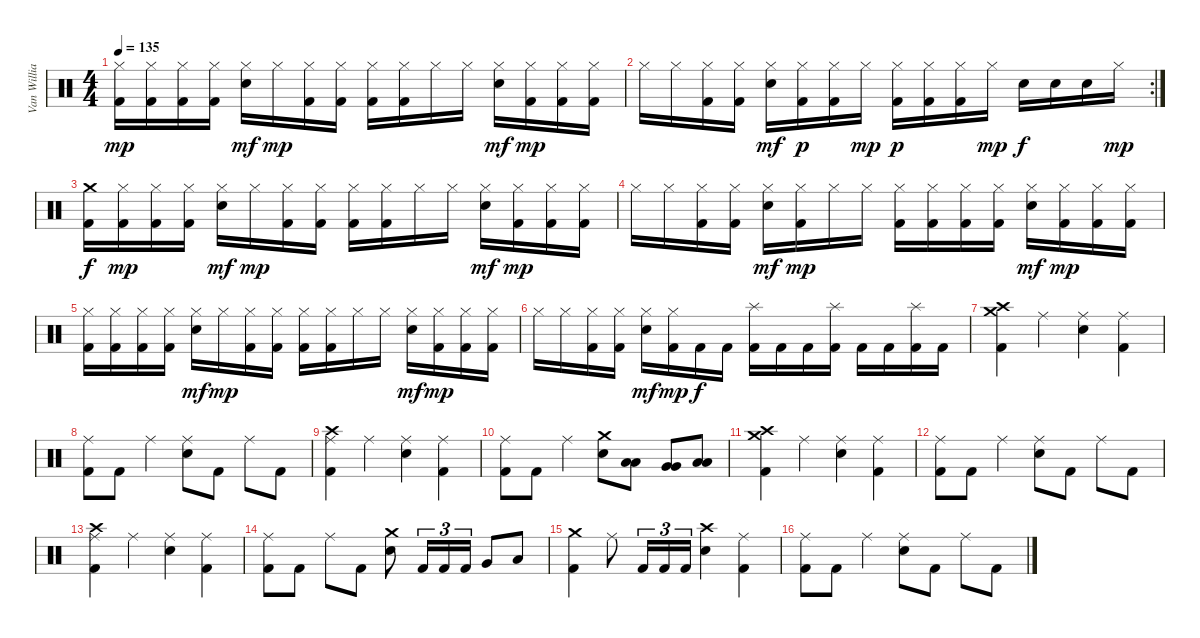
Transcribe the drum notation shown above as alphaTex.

\track ("Van Williams" "Van Willia") {instrument percussion}
\staff {score}
\articulation defaults
\ts (4 4)
\tempo 135
\clef neutral
\ks c
("Hi-Hat (closed)" "Kick (hit) 2").16{dy mp} ("Hi-Hat (closed)" "Kick (hit) 2").16 ("Hi-Hat (closed)" "Kick (hit) 2").16 ("Hi-Hat (closed)" "Kick (hit) 2").16 ("Hi-Hat (closed)" "Electric Snare (hit)").16{dy mf} "Hi-Hat (closed)".16{dy mp} ("Hi-Hat (closed)" "Kick (hit) 2").16 ("Hi-Hat (closed)" "Kick (hit) 2").16 ("Hi-Hat (closed)" "Kick (hit) 2").16 ("Hi-Hat (closed)" "Kick (hit) 2").16 "Hi-Hat (closed)".16 "Hi-Hat (closed)".16 ("Hi-Hat (closed)" "Electric Snare (hit)").16{dy mf} ("Hi-Hat (closed)" "Kick (hit) 2").16{dy mp} ("Hi-Hat (closed)" "Kick (hit) 2").16 ("Hi-Hat (closed)" "Kick (hit) 2").16 |
\rc 2 "Hi-Hat (closed)".16 "Hi-Hat (closed)".16
("Hi-Hat (closed)" "Kick (hit) 2").16 ("Hi-Hat (closed)" "Kick (hit) 2").16 ("Hi-Hat (closed)" "Electric Snare (hit)").16{dy mf} ("Hi-Hat (closed)" "Kick (hit) 2").16{dy p} ("Hi-Hat (closed)" "Kick (hit) 2").16 "Hi-Hat (closed)".16{dy mp} ("Hi-Hat (closed)" "Kick (hit) 2").16{dy p} ("Hi-Hat (closed)" "Kick (hit) 2").16 ("Hi-Hat (closed)" "Kick (hit) 2").16 "Hi-Hat (closed)".16{dy mp} "Electric Snare (hit)".16{dy f} "Electric Snare (hit)".16 "Electric Snare (hit)".16 "Hi-Hat (closed)".16{dy mp} |
("Crash medium (hit)" "Kick (hit) 2").16{dy f} ("Hi-Hat (closed)" "Kick (hit) 2").16{dy mp} ("Hi-Hat (closed)" "Kick (hit) 2").16 ("Hi-Hat (closed)" "Kick (hit) 2").16 ("Hi-Hat (closed)" "Electric Snare (hit)").16{dy mf} "Hi-Hat (closed)".16{dy mp} ("Hi-Hat (closed)" "Kick (hit) 2").16 ("Hi-Hat (closed)" "Kick (hit) 2").16 ("Hi-Hat (closed)" "Kick (hit) 2").16 ("Hi-Hat (closed)" "Kick (hit) 2").16 "Hi-Hat (closed)".16 "Hi-Hat (closed)".16 ("Hi-Hat (closed)" "Electric Snare (hit)").16{dy mf} ("Hi-Hat (closed)" "Kick (hit) 2").16{dy mp} ("Hi-Hat (closed)" "Kick (hit) 2").16 ("Hi-Hat (closed)" "Kick (hit) 2").16 |
"Hi-Hat (closed)".16 "Hi-Hat (closed)".16 ("Hi-Hat (closed)" "Kick (hit) 2").16 ("Hi-Hat (closed)" "Kick (hit) 2").16 ("Hi-Hat (closed)" "Electric Snare (hit)").16{dy mf} ("Hi-Hat (closed)" "Kick (hit) 2").16{dy mp} "Hi-Hat (closed)".16 "Hi-Hat (closed)".16 ("Hi-Hat (closed)" "Kick (hit) 2").16 ("Hi-Hat (closed)" "Kick (hit) 2").16 ("Hi-Hat (closed)" "Kick (hit) 2").16 ("Hi-Hat (closed)" "Kick (hit) 2").16 ("Hi-Hat (closed)" "Electric Snare (hit)").16{dy mf} ("Hi-Hat (closed)" "Kick (hit) 2").16{dy mp} ("Hi-Hat (closed)" "Kick (hit) 2").16 ("Hi-Hat (closed)" "Kick (hit) 2").16 |
("Hi-Hat (closed)" "Kick (hit) 2").16 ("Hi-Hat (closed)" "Kick (hit) 2").16 ("Hi-Hat (closed)" "Kick (hit) 2").16 ("Hi-Hat (closed)" "Kick (hit) 2").16 ("Hi-Hat (closed)" "Electric Snare (hit)").16{dy mf} "Hi-Hat (closed)".16{dy mp} ("Hi-Hat (closed)" "Kick (hit) 2").16 ("Hi-Hat (closed)" "Kick (hit) 2").16 ("Hi-Hat (closed)" "Kick (hit) 2").16 ("Hi-Hat (closed)" "Kick (hit) 2").16 "Hi-Hat (closed)".16 "Hi-Hat (closed)".16 ("Hi-Hat (closed)" "Electric Snare (hit)").16{dy mf} ("Hi-Hat (closed)" "Kick (hit) 2").16{dy mp} ("Hi-Hat (closed)" "Kick (hit) 2").16 ("Hi-Hat (closed)" "Kick (hit) 2").16 |
"Hi-Hat (closed)".16 "Hi-Hat (closed)".16 ("Hi-Hat (closed)" "Kick (hit) 2").16 ("Hi-Hat (closed)" "Kick (hit) 2").16 ("Hi-Hat (closed)" "Electric Snare (hit)").16{dy mf} ("Hi-Hat (closed)" "Kick (hit) 2").16{dy mp} "Kick (hit) 2".16{dy f} "Kick (hit) 2".16 ("Splash (hit)" "Kick (hit) 2").16 "Kick (hit) 2".16 "Kick (hit) 2".16 ("Splash (hit)" "Kick (hit) 2").16 "Kick (hit) 2".16 "Kick (hit) 2".16 ("Splash (hit)" "Kick (hit) 2").16 "Kick (hit) 2".16 |
("Crash medium (hit)" "Crash high (hit)" "Kick (hit) 2").4 "Ride (middle)".4 ("Ride (middle)" "Electric Snare (hit)").4 ("Ride (middle)" "Kick (hit) 2").4 |
("Ride (middle)" "Kick (hit) 2").8 "Kick (hit) 2".8 "Ride (middle)".4 ("Ride (middle)" "Electric Snare (hit)").8 "Kick (hit) 2".8 "Ride (middle)".8 "Kick (hit) 2".8 |
("Crash high (hit)" "Ride (middle)" "Kick (hit) 2").4 "Ride (middle)".4 ("Ride (middle)" "Electric Snare (hit)").4 ("Ride (middle)" "Kick (hit) 2").4 |
("Ride (middle)" "Kick (hit) 2").8 "Kick (hit) 2".8 "Ride (middle)".4 ("Crash medium (hit)" "Electric Snare (hit)").8 ("Low Floor Tom (hit)" "Low Floor Tom (hit)").8 ("Very Low Tom (hit)" "Very Low Tom (hit)").8 ("Low Floor Tom (hit)" "Low Floor Tom (hit)").8 |
("Crash medium (hit)" "Crash high (hit)" "Kick (hit) 2").4 "Ride (middle)".4 ("Ride (middle)" "Electric Snare (hit)").4 ("Ride (middle)" "Kick (hit) 2").4 |
("Ride (middle)" "Kick (hit) 2").8 "Kick (hit) 2".8 "Ride (middle)".4 ("Ride (middle)" "Electric Snare (hit)").8 "Kick (hit) 2".8 "Ride (middle)".8 "Kick (hit) 2".8 |
("Crash high (hit)" "Ride (middle)" "Kick (hit) 2").4 "Ride (middle)".4 ("Ride (middle)" "Electric Snare (hit)").4 ("Ride (middle)" "Kick (hit) 2").4 |
("Ride (middle)" "Kick (hit) 2").8 "Kick (hit) 2".8 "Ride (middle)".8 "Kick (hit) 2".8 ("Crash medium (hit)" "Electric Snare (hit)").8 "Kick (hit) 2".16{tu (3 2)} "Kick (hit) 2".16{tu (3 2)} "Kick (hit) 2".16{tu (3 2)} "Very Low Tom (hit)".8 "Low Floor Tom (hit)".8 |
("Crash medium (hit)" "Kick (hit) 2").4 "Ride (middle)".8 "Kick (hit) 2".16{tu (3 2)} "Kick (hit) 2".16{tu (3 2)} "Kick (hit) 2".16{tu (3 2)} ("Crash high (hit)" "Electric Snare (hit)").4 ("Ride (middle)" "Kick (hit) 2").4 |
("Ride (middle)" "Kick (hit) 2").8 "Kick (hit) 2".8 "Ride (middle)".4 ("Ride (middle)" "Electric Snare (hit)").8 "Kick (hit) 2".8 "Ride (middle)".8 "Kick (hit) 2".8
